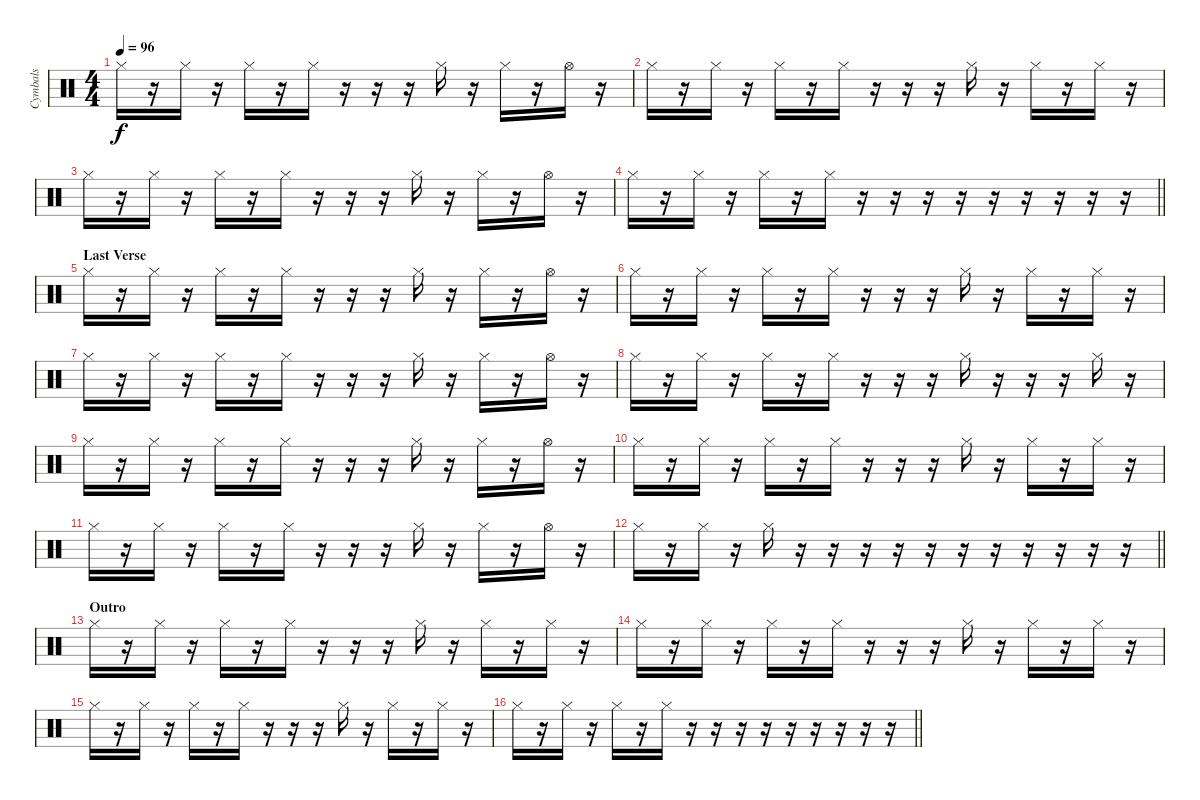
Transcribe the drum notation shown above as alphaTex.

\track ("Cymbals" "Cymbals") {instrument percussion}
\staff {score}
\articulation defaults
\ts (4 4)
\tempo 96
\clef neutral
\ks c "Hi-Hat (closed)".16{dy f}
r.16 "Hi-Hat (closed)".16 r.16 "Hi-Hat (closed)".16 r.16 "Hi-Hat (closed)".16 r.16 r.16 r.16 "Hi-Hat (closed)".16 r.16 "Hi-Hat (closed)".16 r.16 "Hi-Hat (open)".16 r.16 |
"Hi-Hat (closed)".16 r.16 "Hi-Hat (closed)".16 r.16 "Hi-Hat (closed)".16 r.16 "Hi-Hat (closed)".16 r.16 r.16 r.16 "Hi-Hat (closed)".16 r.16 "Hi-Hat (closed)".16 r.16 "Hi-Hat (closed)".16 r.16 |
"Hi-Hat (closed)".16 r.16 "Hi-Hat (closed)".16 r.16 "Hi-Hat (closed)".16 r.16 "Hi-Hat (closed)".16 r.16 r.16 r.16 "Hi-Hat (closed)".16 r.16 "Hi-Hat (closed)".16 r.16 "Hi-Hat (open)".16 r.16 |
\barLineRight lightlight "Hi-Hat (closed)".16
r.16 "Hi-Hat (closed)".16 r.16 "Hi-Hat (closed)".16 r.16 "Hi-Hat (closed)".16 r.16 r.16 r.16 r.16 r.16 r.16 r.16 r.16 r.16 |
\section ("" "Last Verse")
"Hi-Hat (closed)".16 r.16 "Hi-Hat (closed)".16 r.16 "Hi-Hat (closed)".16 r.16 "Hi-Hat (closed)".16 r.16 r.16 r.16 "Hi-Hat (closed)".16 r.16 "Hi-Hat (closed)".16 r.16 "Hi-Hat (open)".16 r.16 |
"Hi-Hat (closed)".16 r.16 "Hi-Hat (closed)".16 r.16 "Hi-Hat (closed)".16 r.16 "Hi-Hat (closed)".16 r.16 r.16 r.16 "Hi-Hat (closed)".16 r.16 "Hi-Hat (closed)".16 r.16 "Hi-Hat (closed)".16 r.16 |
"Hi-Hat (closed)".16 r.16 "Hi-Hat (closed)".16 r.16 "Hi-Hat (closed)".16 r.16 "Hi-Hat (closed)".16 r.16 r.16 r.16 "Hi-Hat (closed)".16 r.16 "Hi-Hat (closed)".16 r.16 "Hi-Hat (open)".16 r.16 |
"Hi-Hat (closed)".16 r.16 "Hi-Hat (closed)".16 r.16 "Hi-Hat (closed)".16 r.16 "Hi-Hat (closed)".16 r.16 r.16 r.16 "Hi-Hat (closed)".16 r.16 r.16 r.16 "Hi-Hat (closed)".16 r.16 |
"Hi-Hat (closed)".16 r.16 "Hi-Hat (closed)".16 r.16 "Hi-Hat (closed)".16 r.16 "Hi-Hat (closed)".16 r.16 r.16 r.16 "Hi-Hat (closed)".16 r.16 "Hi-Hat (closed)".16 r.16 "Hi-Hat (open)".16 r.16 |
"Hi-Hat (closed)".16 r.16 "Hi-Hat (closed)".16 r.16 "Hi-Hat (closed)".16 r.16 "Hi-Hat (closed)".16 r.16 r.16 r.16 "Hi-Hat (closed)".16 r.16 "Hi-Hat (closed)".16 r.16 "Hi-Hat (closed)".16 r.16 |
"Hi-Hat (closed)".16 r.16 "Hi-Hat (closed)".16 r.16 "Hi-Hat (closed)".16 r.16 "Hi-Hat (closed)".16 r.16 r.16 r.16 "Hi-Hat (closed)".16 r.16 "Hi-Hat (closed)".16 r.16 "Hi-Hat (open)".16 r.16 |
\barLineRight lightlight "Hi-Hat (closed)".16
r.16 "Hi-Hat (closed)".16 r.16 "Hi-Hat (closed)".16 r.16 r.16 r.16 r.16 r.16 r.16 r.16 r.16 r.16 r.16 r.16 |
\section ("" "Outro")
"Hi-Hat (closed)".16 r.16 "Hi-Hat (closed)".16 r.16 "Hi-Hat (closed)".16 r.16 "Hi-Hat (closed)".16 r.16 r.16 r.16 "Hi-Hat (closed)".16 r.16 "Hi-Hat (closed)".16 r.16 "Hi-Hat (closed)".16 r.16 |
"Hi-Hat (closed)".16 r.16 "Hi-Hat (closed)".16 r.16 "Hi-Hat (closed)".16 r.16 "Hi-Hat (closed)".16 r.16 r.16 r.16 "Hi-Hat (closed)".16 r.16 "Hi-Hat (closed)".16 r.16 "Hi-Hat (closed)".16 r.16 |
"Hi-Hat (closed)".16 r.16 "Hi-Hat (closed)".16 r.16 "Hi-Hat (closed)".16 r.16 "Hi-Hat (closed)".16 r.16 r.16 r.16 "Hi-Hat (closed)".16 r.16 "Hi-Hat (closed)".16 r.16 "Hi-Hat (closed)".16 r.16 |
\barLineRight lightlight "Hi-Hat (closed)".16
r.16 "Hi-Hat (closed)".16 r.16 "Hi-Hat (closed)".16 r.16 "Hi-Hat (closed)".16 r.16 r.16 r.16 r.16 r.16 r.16 r.16 r.16 r.16
